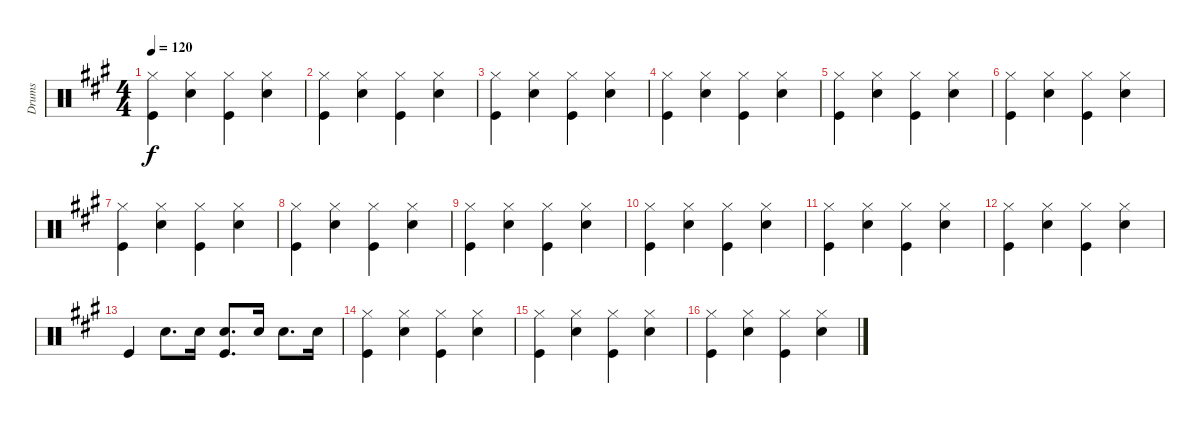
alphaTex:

\track ("Drums" "Drums") {instrument percussion}
\staff {score}
\articulation defaults
\ts (4 4)
\tempo 120
\clef neutral
\ks a
("Kick (hit)" "Hi-Hat (closed)").4{dy f} ("Snare (hit) 2" "Hi-Hat (closed)").4 ("Kick (hit)" "Hi-Hat (closed)").4 ("Snare (hit) 2" "Hi-Hat (closed)").4 |
("Kick (hit)" "Hi-Hat (closed)").4 ("Snare (hit) 2" "Hi-Hat (closed)").4 ("Kick (hit)" "Hi-Hat (closed)").4 ("Snare (hit) 2" "Hi-Hat (closed)").4 |
("Kick (hit)" "Hi-Hat (closed)").4 ("Snare (hit) 2" "Hi-Hat (closed)").4 ("Kick (hit)" "Hi-Hat (closed)").4 ("Snare (hit) 2" "Hi-Hat (closed)").4 |
("Kick (hit)" "Hi-Hat (closed)").4 ("Snare (hit) 2" "Hi-Hat (closed)").4 ("Kick (hit)" "Hi-Hat (closed)").4 ("Snare (hit) 2" "Hi-Hat (closed)").4 |
("Kick (hit)" "Hi-Hat (closed)").4 ("Snare (hit) 2" "Hi-Hat (closed)").4 ("Kick (hit)" "Hi-Hat (closed)").4 ("Snare (hit) 2" "Hi-Hat (closed)").4 |
("Kick (hit)" "Hi-Hat (closed)").4 ("Snare (hit) 2" "Hi-Hat (closed)").4 ("Kick (hit)" "Hi-Hat (closed)").4 ("Snare (hit) 2" "Hi-Hat (closed)").4 |
("Kick (hit)" "Hi-Hat (closed)").4 ("Snare (hit) 2" "Hi-Hat (closed)").4 ("Kick (hit)" "Hi-Hat (closed)").4 ("Snare (hit) 2" "Hi-Hat (closed)").4 |
("Kick (hit)" "Hi-Hat (closed)").4 ("Snare (hit) 2" "Hi-Hat (closed)").4 ("Kick (hit)" "Hi-Hat (closed)").4 ("Snare (hit) 2" "Hi-Hat (closed)").4 |
("Kick (hit)" "Hi-Hat (closed)").4 ("Snare (hit) 2" "Hi-Hat (closed)").4 ("Kick (hit)" "Hi-Hat (closed)").4 ("Snare (hit) 2" "Hi-Hat (closed)").4 |
("Kick (hit)" "Hi-Hat (closed)").4 ("Snare (hit) 2" "Hi-Hat (closed)").4 ("Kick (hit)" "Hi-Hat (closed)").4 ("Snare (hit) 2" "Hi-Hat (closed)").4 |
("Kick (hit)" "Hi-Hat (closed)").4 ("Snare (hit) 2" "Hi-Hat (closed)").4 ("Kick (hit)" "Hi-Hat (closed)").4 ("Snare (hit) 2" "Hi-Hat (closed)").4 |
("Kick (hit)" "Hi-Hat (closed)").4 ("Snare (hit) 2" "Hi-Hat (closed)").4 ("Kick (hit)" "Hi-Hat (closed)").4 ("Snare (hit) 2" "Hi-Hat (closed)").4 |
"Kick (hit)".4 "Snare (hit) 2".8{d} "Snare (hit) 2".16 ("Snare (hit) 2" "Kick (hit)").8{d} "Snare (hit) 2".16 "Snare (hit) 2".8{d} "Snare (hit) 2".16 |
("Kick (hit)" "Hi-Hat (closed)").4 ("Snare (hit) 2" "Hi-Hat (closed)").4 ("Kick (hit)" "Hi-Hat (closed)").4 ("Snare (hit) 2" "Hi-Hat (closed)").4 |
("Kick (hit)" "Hi-Hat (closed)").4 ("Snare (hit) 2" "Hi-Hat (closed)").4 ("Kick (hit)" "Hi-Hat (closed)").4 ("Snare (hit) 2" "Hi-Hat (closed)").4 |
("Kick (hit)" "Hi-Hat (closed)").4 ("Snare (hit) 2" "Hi-Hat (closed)").4 ("Kick (hit)" "Hi-Hat (closed)").4 ("Snare (hit) 2" "Hi-Hat (closed)").4
